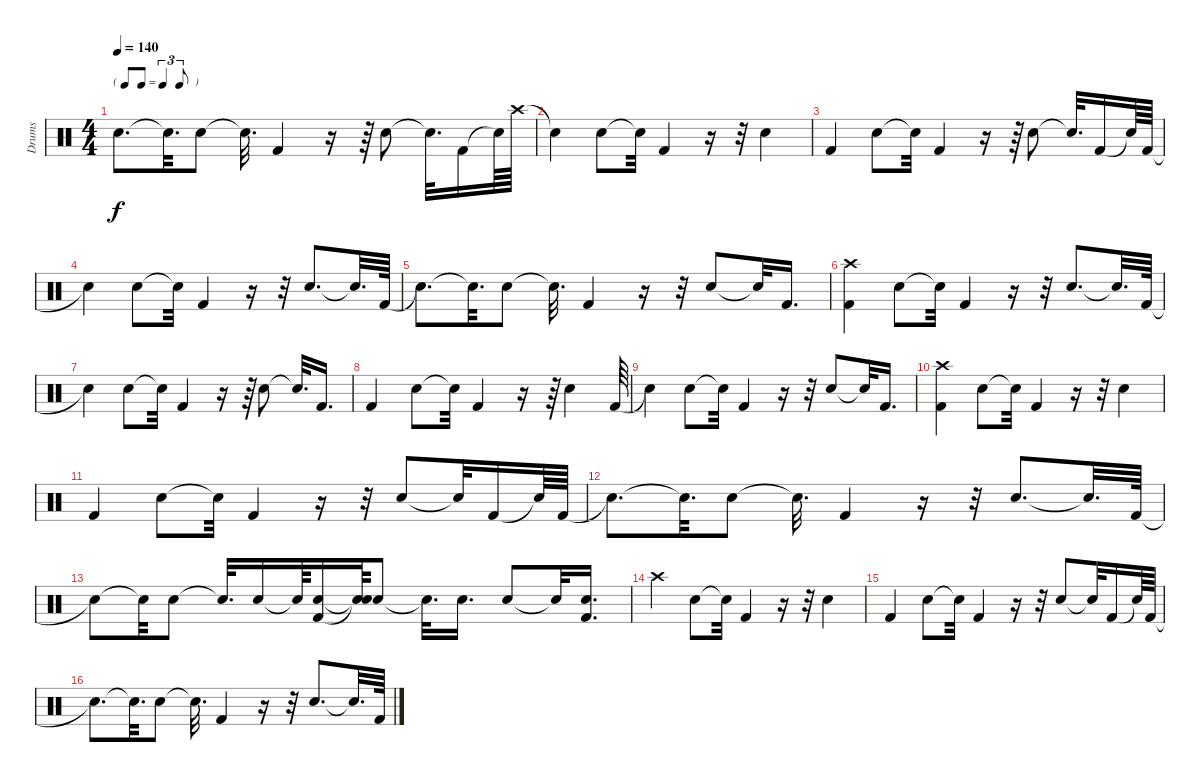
\track ("Drums" "Drums") {instrument percussion}
\staff {score}
\articulation defaults
\ts (4 4)
\tf triplet8th
\tempo 140
\clef neutral
\ks c "Snare (hit)"{t}.8{d dy f} "Snare (hit)"{t}.32{d} "Snare (hit) 2".8 "Snare (hit)"{t}.32{d} "Kick (hit) 2".4
r.16 r.64 "Snare (hit) 2".8 "Snare (hit)"{t}.32{d} "Kick (hit) 2".16 "Snare (hit)"{t}.64 "Crash high (hit)".64 |
"Snare (hit)"{t}.4 "Snare (hit) 2".8 "Snare (hit)"{t}.32 "Kick (hit) 2".4 r.16 r.32 "Snare (hit) 2".4 |
"Kick (hit) 2".4 "Snare (hit) 2".8 "Snare (hit)"{t}.32 "Kick (hit) 2".4 r.16 r.64 "Snare (hit) 2".8 "Snare (hit)"{t}.32{d} "Kick (hit) 2".16 "Snare (hit)"{t}.64 "Kick (hit) 2".64 |
"Snare (hit)"{t}.4 "Snare (hit) 2".8 "Snare (hit)"{t}.32 "Kick (hit) 2".4 r.16 r.32 "Snare (hit) 2".8{d} "Snare (hit)"{t}.32{d} "Kick (hit) 2".64 |
"Snare (hit)"{t}.8{d} "Snare (hit)"{t}.32{d} "Snare (hit) 2".8 "Snare (hit)"{t}.32{d} "Kick (hit) 2".4 r.16 r.32 "Snare (hit) 2".8 "Snare (hit)"{t}.32 "Kick (hit) 2".16{d} |
("Kick (hit) 2" "Crash high (hit)").4 "Snare (hit) 2".8 "Snare (hit)"{t}.32 "Kick (hit) 2".4 r.16 r.32 "Snare (hit) 2".8{d} "Snare (hit)"{t}.32{d} "Kick (hit) 2".64 |
"Snare (hit)"{t}.4 "Snare (hit) 2".8 "Snare (hit)"{t}.32 "Kick (hit) 2".4 r.16 r.64 "Snare (hit) 2".8 "Snare (hit)"{t}.32{d} "Kick (hit) 2".16{d} |
"Kick (hit) 2".4 "Snare (hit) 2".8 "Snare (hit)"{t}.32 "Kick (hit) 2".4 r.16 r.64 "Snare (hit) 2".4 "Kick (hit) 2".64 |
"Snare (hit)"{t}.4 "Snare (hit) 2".8 "Snare (hit)"{t}.32 "Kick (hit) 2".4 r.16 r.32 "Snare (hit) 2".8 "Snare (hit)"{t}.32 "Kick (hit) 2".16{d} |
("Kick (hit) 2" "Crash high (hit)").4 "Snare (hit) 2".8 "Snare (hit)"{t}.32 "Kick (hit) 2".4 r.16 r.32 "Snare (hit) 2".4 |
"Kick (hit) 2".4 "Snare (hit) 2".8 "Snare (hit)"{t}.32 "Kick (hit) 2".4 r.16 r.32 "Snare (hit) 2".8 "Snare (hit)"{t}.32 "Kick (hit) 2".16 "Snare (hit)"{t}.64 "Kick (hit) 2".64 |
"Snare (hit)"{t}.8{d} "Snare (hit)"{t}.32{d} "Snare (hit) 2".8 "Snare (hit)"{t}.32{d} "Kick (hit) 2".4 r.16 r.32 "Snare (hit) 2".8{d} "Snare (hit)"{t}.32{d} "Kick (hit) 2".64 |
"Snare (hit)"{t}.8 "Snare (hit)"{t}.32 "Snare (hit) 2".8 "Snare (hit)"{t}.32{d} "Snare (hit) 2".16 "Snare (hit)"{t}.64 ("Kick (hit) 2" "Snare (hit) 2").16 ("Snare (hit)"{t} "Snare (hit)"{t}).64 "Snare (hit) 2".8 "Snare (hit)"{t}.32{d} "Snare (hit) 2".16{d} "Snare (hit) 2".8 "Snare (hit)"{t}.32 ("Kick (hit) 2" "Snare (hit) 2").16{d} |
"Crash high (hit)".4 "Snare (hit) 2".8 "Snare (hit)"{t}.32 "Kick (hit) 2".4 r.16 r.32 "Snare (hit) 2".4 |
"Kick (hit) 2".4 "Snare (hit) 2".8 "Snare (hit)"{t}.32 "Kick (hit) 2".4 r.16 r.32 "Snare (hit) 2".8 "Snare (hit)"{t}.32 "Kick (hit) 2".16 "Snare (hit)"{t}.64 "Kick (hit) 2".64 |
"Snare (hit)"{t}.8{d} "Snare (hit)"{t}.32{d} "Snare (hit) 2".8 "Snare (hit)"{t}.32{d} "Kick (hit) 2".4 r.16 r.32 "Snare (hit) 2".8{d} "Snare (hit)"{t}.32{d} "Kick (hit) 2".64
